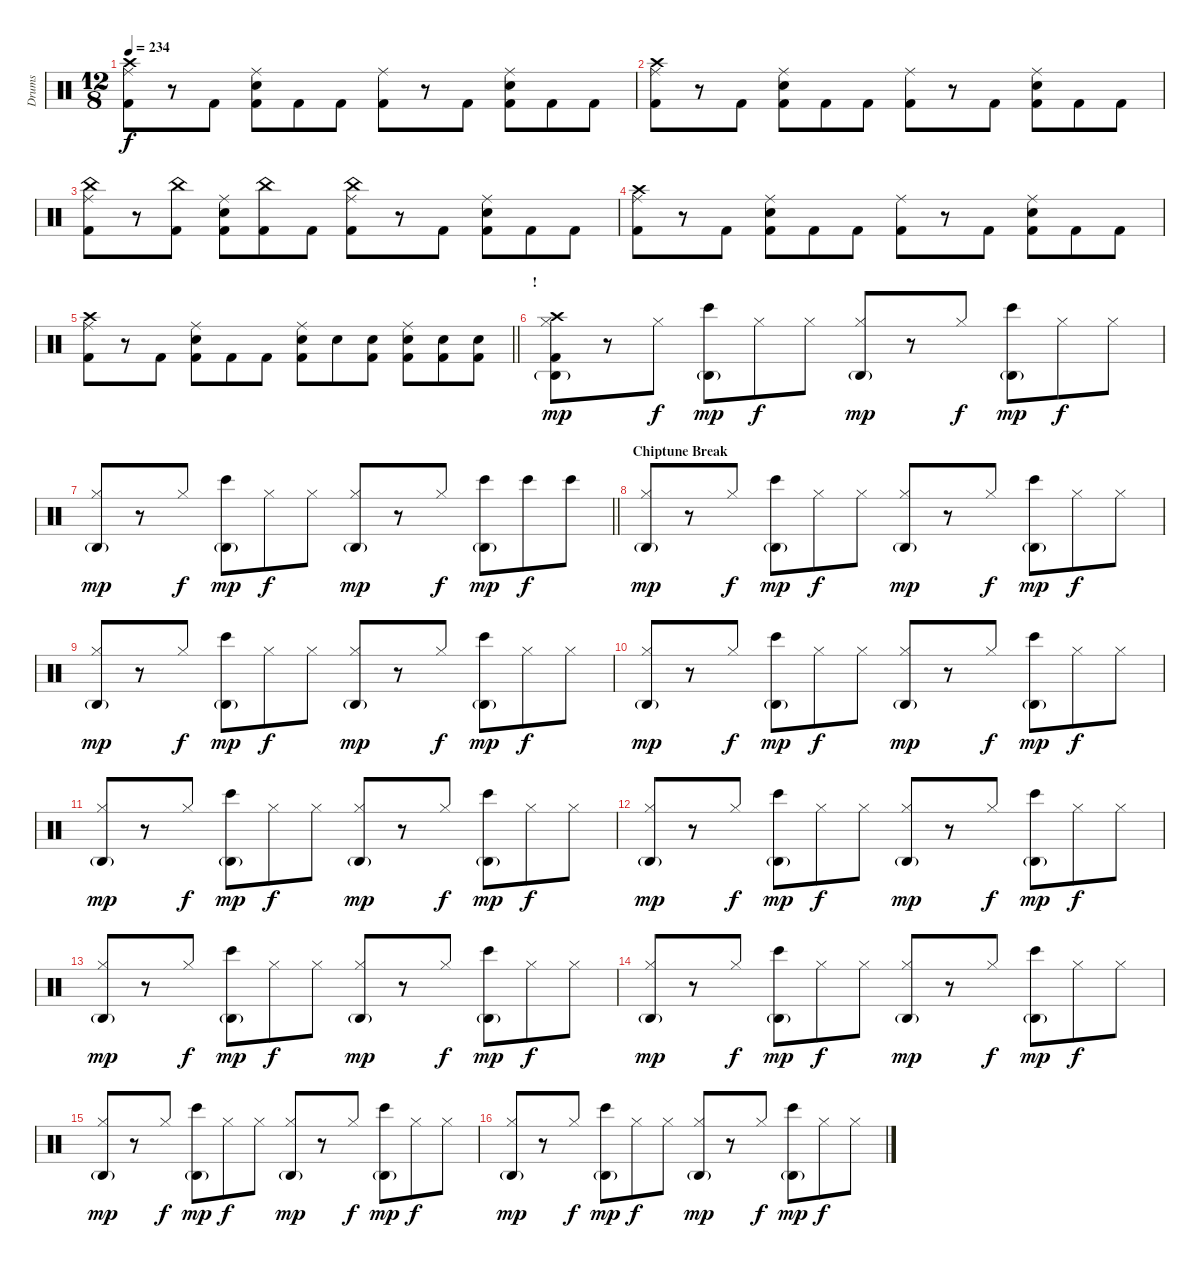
\track ("Drums" "Drums") {instrument percussion}
\staff {score}
\articulation defaults
\ts (12 8)
\tempo 234
\clef neutral
\ks c
("Crash high (hit)" "Ride (middle)" "Kick (hit) 2").8{dy f} r.8 "Kick (hit) 2".8 ("Ride (middle)" "Snare (hit) 2" "Kick (hit) 2").8 "Kick (hit) 2".8 "Kick (hit) 2".8 ("Ride (middle)" "Kick (hit) 2").8 r.8 "Kick (hit) 2".8 ("Ride (middle)" "Snare (hit) 2" "Kick (hit) 2").8 "Kick (hit) 2".8 "Kick (hit) 2".8 |
("Crash high (hit)" "Ride (middle)" "Kick (hit) 2").8 r.8 "Kick (hit) 2".8 ("Ride (middle)" "Snare (hit) 2" "Kick (hit) 2").8 "Kick (hit) 2".8 "Kick (hit) 2".8 ("Ride (middle)" "Kick (hit) 2").8 r.8 "Kick (hit) 2".8 ("Ride (middle)" "Snare (hit) 2" "Kick (hit) 2").8 "Kick (hit) 2".8 "Kick (hit) 2".8 |
("China (hit)" "Ride (middle)" "Kick (hit) 2").8 r.8 ("China (hit)" "Kick (hit) 2").8 ("Ride (middle)" "Snare (hit) 2" "Kick (hit) 2").8 ("China (hit)" "Kick (hit) 2").8 "Kick (hit) 2".8 ("China (hit)" "Ride (middle)" "Kick (hit) 2").8 r.8 "Kick (hit) 2".8 ("Ride (middle)" "Snare (hit) 2" "Kick (hit) 2").8 "Kick (hit) 2".8 "Kick (hit) 2".8 |
("Crash high (hit)" "Ride (middle)" "Kick (hit) 2").8 r.8 "Kick (hit) 2".8 ("Ride (middle)" "Snare (hit) 2" "Kick (hit) 2").8 "Kick (hit) 2".8 "Kick (hit) 2".8 ("Ride (middle)" "Kick (hit) 2").8 r.8 "Kick (hit) 2".8 ("Ride (middle)" "Snare (hit) 2" "Kick (hit) 2").8 "Kick (hit) 2".8 "Kick (hit) 2".8 |
\barLineRight lightlight
("Crash high (hit)" "Ride (middle)" "Kick (hit) 2").8 r.8 "Kick (hit) 2".8 ("Ride (middle)" "Snare (hit) 2" "Kick (hit) 2").8 "Kick (hit) 2".8 "Kick (hit) 2".8 ("Ride (middle)" "Snare (hit) 2" "Kick (hit) 2").8 "Snare (hit) 2".8 ("Snare (hit) 2" "Kick (hit) 2").8 ("Ride (middle)" "Snare (hit) 2" "Kick (hit) 2").8 ("Snare (hit) 2" "Kick (hit) 2").8 ("Snare (hit) 2" "Kick (hit) 2").8 |
\section ("" "!")
("Crash high (hit)" "Kick (hit) 2" "Agogo high (hit)"{g} "Hi-Hat (closed)").8{dy mp} r.8 "Hi-Hat (closed)".8{dy f} ("Agogo high (hit)"{g} "Bongo High (hit)").8{dy mp} "Hi-Hat (closed)".8{dy f} "Hi-Hat (closed)".8 ("Agogo high (hit)"{g} "Hi-Hat (closed)").8{dy mp} r.8 "Hi-Hat (closed)".8{dy f} ("Agogo high (hit)"{g} "Bongo High (hit)").8{dy mp} "Hi-Hat (closed)".8{dy f} "Hi-Hat (closed)".8 |
\barLineRight lightlight
("Agogo high (hit)"{g} "Hi-Hat (closed)").8{dy mp} r.8 "Hi-Hat (closed)".8{dy f} ("Agogo high (hit)"{g} "Bongo High (hit)").8{dy mp} "Hi-Hat (closed)".8{dy f} "Hi-Hat (closed)".8 ("Agogo high (hit)"{g} "Hi-Hat (closed)").8{dy mp} r.8 "Hi-Hat (closed)".8{dy f} ("Agogo high (hit)"{g} "Bongo High (hit)").8{dy mp} "Bongo High (hit)".8{dy f} "Bongo High (hit)".8 |
\section ("" "Chiptune Break")
("Agogo high (hit)"{g} "Hi-Hat (closed)").8{dy mp} r.8 "Hi-Hat (closed)".8{dy f} ("Agogo high (hit)"{g} "Bongo High (hit)").8{dy mp} "Hi-Hat (closed)".8{dy f} "Hi-Hat (closed)".8 ("Agogo high (hit)"{g} "Hi-Hat (closed)").8{dy mp} r.8 "Hi-Hat (closed)".8{dy f} ("Agogo high (hit)"{g} "Bongo High (hit)").8{dy mp} "Hi-Hat (closed)".8{dy f} "Hi-Hat (closed)".8 |
("Agogo high (hit)"{g} "Hi-Hat (closed)").8{dy mp} r.8 "Hi-Hat (closed)".8{dy f} ("Agogo high (hit)"{g} "Bongo High (hit)").8{dy mp} "Hi-Hat (closed)".8{dy f} "Hi-Hat (closed)".8 ("Agogo high (hit)"{g} "Hi-Hat (closed)").8{dy mp} r.8 "Hi-Hat (closed)".8{dy f} ("Agogo high (hit)"{g} "Bongo High (hit)").8{dy mp} "Hi-Hat (closed)".8{dy f} "Hi-Hat (closed)".8 |
("Agogo high (hit)"{g} "Hi-Hat (closed)").8{dy mp} r.8 "Hi-Hat (closed)".8{dy f} ("Agogo high (hit)"{g} "Bongo High (hit)").8{dy mp} "Hi-Hat (closed)".8{dy f} "Hi-Hat (closed)".8 ("Agogo high (hit)"{g} "Hi-Hat (closed)").8{dy mp} r.8 "Hi-Hat (closed)".8{dy f} ("Agogo high (hit)"{g} "Bongo High (hit)").8{dy mp} "Hi-Hat (closed)".8{dy f} "Hi-Hat (closed)".8 |
("Agogo high (hit)"{g} "Hi-Hat (closed)").8{dy mp} r.8 "Hi-Hat (closed)".8{dy f} ("Agogo high (hit)"{g} "Bongo High (hit)").8{dy mp} "Hi-Hat (closed)".8{dy f} "Hi-Hat (closed)".8 ("Agogo high (hit)"{g} "Hi-Hat (closed)").8{dy mp} r.8 "Hi-Hat (closed)".8{dy f} ("Agogo high (hit)"{g} "Bongo High (hit)").8{dy mp} "Hi-Hat (closed)".8{dy f} "Hi-Hat (closed)".8 |
("Agogo high (hit)"{g} "Hi-Hat (closed)").8{dy mp} r.8 "Hi-Hat (closed)".8{dy f} ("Agogo high (hit)"{g} "Bongo High (hit)").8{dy mp} "Hi-Hat (closed)".8{dy f} "Hi-Hat (closed)".8 ("Agogo high (hit)"{g} "Hi-Hat (closed)").8{dy mp} r.8 "Hi-Hat (closed)".8{dy f} ("Agogo high (hit)"{g} "Bongo High (hit)").8{dy mp} "Hi-Hat (closed)".8{dy f} "Hi-Hat (closed)".8 |
("Agogo high (hit)"{g} "Hi-Hat (closed)").8{dy mp} r.8 "Hi-Hat (closed)".8{dy f} ("Agogo high (hit)"{g} "Bongo High (hit)").8{dy mp} "Hi-Hat (closed)".8{dy f} "Hi-Hat (closed)".8 ("Agogo high (hit)"{g} "Hi-Hat (closed)").8{dy mp} r.8 "Hi-Hat (closed)".8{dy f} ("Agogo high (hit)"{g} "Bongo High (hit)").8{dy mp} "Hi-Hat (closed)".8{dy f} "Hi-Hat (closed)".8 |
("Agogo high (hit)"{g} "Hi-Hat (closed)").8{dy mp} r.8 "Hi-Hat (closed)".8{dy f} ("Agogo high (hit)"{g} "Bongo High (hit)").8{dy mp} "Hi-Hat (closed)".8{dy f} "Hi-Hat (closed)".8 ("Agogo high (hit)"{g} "Hi-Hat (closed)").8{dy mp} r.8 "Hi-Hat (closed)".8{dy f} ("Agogo high (hit)"{g} "Bongo High (hit)").8{dy mp} "Hi-Hat (closed)".8{dy f} "Hi-Hat (closed)".8 |
("Agogo high (hit)"{g} "Hi-Hat (closed)").8{dy mp} r.8 "Hi-Hat (closed)".8{dy f} ("Agogo high (hit)"{g} "Bongo High (hit)").8{dy mp} "Hi-Hat (closed)".8{dy f} "Hi-Hat (closed)".8 ("Agogo high (hit)"{g} "Hi-Hat (closed)").8{dy mp} r.8 "Hi-Hat (closed)".8{dy f} ("Agogo high (hit)"{g} "Bongo High (hit)").8{dy mp} "Hi-Hat (closed)".8{dy f} "Hi-Hat (closed)".8 |
("Agogo high (hit)"{g} "Hi-Hat (closed)").8{dy mp} r.8 "Hi-Hat (closed)".8{dy f} ("Agogo high (hit)"{g} "Bongo High (hit)").8{dy mp} "Hi-Hat (closed)".8{dy f} "Hi-Hat (closed)".8 ("Agogo high (hit)"{g} "Hi-Hat (closed)").8{dy mp} r.8 "Hi-Hat (closed)".8{dy f} ("Agogo high (hit)"{g} "Bongo High (hit)").8{dy mp} "Hi-Hat (closed)".8{dy f} "Hi-Hat (closed)".8
